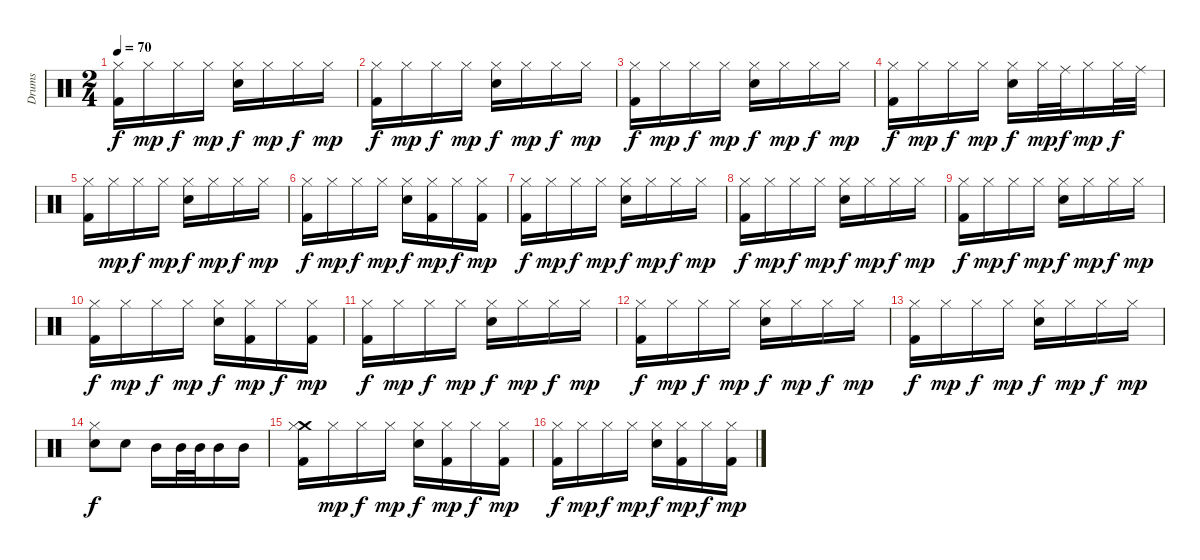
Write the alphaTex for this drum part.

\track ("Drums" "Drums") {instrument percussion}
\staff {score}
\articulation defaults
\ts (2 4)
\tempo 70
\clef neutral
\ks c
("Hi-Hat (closed)" "Kick (hit) 2").16{dy f} "Hi-Hat (closed)".16{dy mp} "Hi-Hat (closed)".16{dy f} "Hi-Hat (closed)".16{dy mp} ("Hi-Hat (closed)" "Electric Snare (hit)").16{dy f} "Hi-Hat (closed)".16{dy mp} "Hi-Hat (closed)".16{dy f} "Hi-Hat (closed)".16{dy mp} |
("Hi-Hat (closed)" "Kick (hit) 2").16{dy f} "Hi-Hat (closed)".16{dy mp} "Hi-Hat (closed)".16{dy f} "Hi-Hat (closed)".16{dy mp} ("Hi-Hat (closed)" "Electric Snare (hit)").16{dy f} "Hi-Hat (closed)".16{dy mp} "Hi-Hat (closed)".16{dy f} "Hi-Hat (closed)".16{dy mp} |
("Hi-Hat (closed)" "Kick (hit) 2").16{dy f} "Hi-Hat (closed)".16{dy mp} "Hi-Hat (closed)".16{dy f} "Hi-Hat (closed)".16{dy mp} ("Hi-Hat (closed)" "Electric Snare (hit)").16{dy f} "Hi-Hat (closed)".16{dy mp} "Hi-Hat (closed)".16{dy f} "Hi-Hat (closed)".16{dy mp} |
("Hi-Hat (closed)" "Kick (hit) 2").16{dy f} "Hi-Hat (closed)".16{dy mp} "Hi-Hat (closed)".16{dy f} "Hi-Hat (closed)".16{dy mp} ("Hi-Hat (closed)" "Electric Snare (hit)").16{dy f} "Hi-Hat (closed)".32{dy mp} "Ride (middle)".32{dy f} "Hi-Hat (closed)".16{dy mp} "Hi-Hat (closed)".32{dy f} "Ride (middle)".32 |
("Hi-Hat (closed)" "Kick (hit) 2").16 "Hi-Hat (closed)".16{dy mp} "Hi-Hat (closed)".16{dy f} "Hi-Hat (closed)".16{dy mp} ("Hi-Hat (closed)" "Electric Snare (hit)").16{dy f} "Hi-Hat (closed)".16{dy mp} "Hi-Hat (closed)".16{dy f} "Hi-Hat (closed)".16{dy mp} |
("Hi-Hat (closed)" "Kick (hit) 2").16{dy f} "Hi-Hat (closed)".16{dy mp} "Hi-Hat (closed)".16{dy f} "Hi-Hat (closed)".16{dy mp} ("Hi-Hat (closed)" "Electric Snare (hit)").16{dy f} ("Hi-Hat (closed)" "Kick (hit) 2").16{dy mp} "Hi-Hat (closed)".16{dy f} ("Hi-Hat (closed)" "Kick (hit) 2").16{dy mp} |
("Hi-Hat (closed)" "Kick (hit) 2").16{dy f} "Hi-Hat (closed)".16{dy mp} "Hi-Hat (closed)".16{dy f} "Hi-Hat (closed)".16{dy mp} ("Hi-Hat (closed)" "Electric Snare (hit)").16{dy f} "Hi-Hat (closed)".16{dy mp} "Hi-Hat (closed)".16{dy f} "Hi-Hat (closed)".16{dy mp} |
("Hi-Hat (closed)" "Kick (hit) 2").16{dy f} "Hi-Hat (closed)".16{dy mp} "Hi-Hat (closed)".16{dy f} "Hi-Hat (closed)".16{dy mp} ("Hi-Hat (closed)" "Electric Snare (hit)").16{dy f} "Hi-Hat (closed)".16{dy mp} "Hi-Hat (closed)".16{dy f} "Hi-Hat (closed)".16{dy mp} |
("Hi-Hat (closed)" "Kick (hit) 2").16{dy f} "Hi-Hat (closed)".16{dy mp} "Hi-Hat (closed)".16{dy f} "Hi-Hat (closed)".16{dy mp} ("Hi-Hat (closed)" "Electric Snare (hit)").16{dy f} "Hi-Hat (closed)".16{dy mp} "Hi-Hat (closed)".16{dy f} "Hi-Hat (closed)".16{dy mp} |
("Hi-Hat (closed)" "Kick (hit) 2").16{dy f} "Hi-Hat (closed)".16{dy mp} "Hi-Hat (closed)".16{dy f} "Hi-Hat (closed)".16{dy mp} ("Hi-Hat (closed)" "Electric Snare (hit)").16{dy f} ("Hi-Hat (closed)" "Kick (hit) 2").16{dy mp} "Hi-Hat (closed)".16{dy f} ("Hi-Hat (closed)" "Kick (hit) 2").16{dy mp} |
("Hi-Hat (closed)" "Kick (hit) 2").16{dy f} "Hi-Hat (closed)".16{dy mp} "Hi-Hat (closed)".16{dy f} "Hi-Hat (closed)".16{dy mp} ("Hi-Hat (closed)" "Electric Snare (hit)").16{dy f} "Hi-Hat (closed)".16{dy mp} "Hi-Hat (closed)".16{dy f} "Hi-Hat (closed)".16{dy mp} |
("Hi-Hat (closed)" "Kick (hit) 2").16{dy f} "Hi-Hat (closed)".16{dy mp} "Hi-Hat (closed)".16{dy f} "Hi-Hat (closed)".16{dy mp} ("Hi-Hat (closed)" "Electric Snare (hit)").16{dy f} "Hi-Hat (closed)".16{dy mp} "Hi-Hat (closed)".16{dy f} "Hi-Hat (closed)".16{dy mp} |
("Hi-Hat (closed)" "Kick (hit) 2").16{dy f} "Hi-Hat (closed)".16{dy mp} "Hi-Hat (closed)".16{dy f} "Hi-Hat (closed)".16{dy mp} ("Hi-Hat (closed)" "Electric Snare (hit)").16{dy f} "Hi-Hat (closed)".16{dy mp} "Hi-Hat (closed)".16{dy f} "Hi-Hat (closed)".16{dy mp} |
("Hi-Hat (closed)" "Electric Snare (hit)").8{dy f} "Electric Snare (hit)".8 "Mid Tom (hit)".16 "Mid Tom (hit)".32 "Mid Tom (hit)".32 "Mid Tom (hit)".16 "Mid Tom (hit)".16 |
("Crash medium (hit)" "Hi-Hat (closed)" "Kick (hit) 2").16 "Hi-Hat (closed)".16{dy mp} "Hi-Hat (closed)".16{dy f} "Hi-Hat (closed)".16{dy mp} ("Hi-Hat (closed)" "Electric Snare (hit)").16{dy f} ("Hi-Hat (closed)" "Kick (hit) 2").16{dy mp} "Hi-Hat (closed)".16{dy f} ("Hi-Hat (closed)" "Kick (hit) 2").16{dy mp} |
("Hi-Hat (closed)" "Kick (hit) 2").16{dy f} "Hi-Hat (closed)".16{dy mp} "Hi-Hat (closed)".16{dy f} "Hi-Hat (closed)".16{dy mp} ("Hi-Hat (closed)" "Electric Snare (hit)").16{dy f} ("Hi-Hat (closed)" "Kick (hit) 2").16{dy mp} "Hi-Hat (closed)".16{dy f} ("Hi-Hat (closed)" "Kick (hit) 2").16{dy mp}
